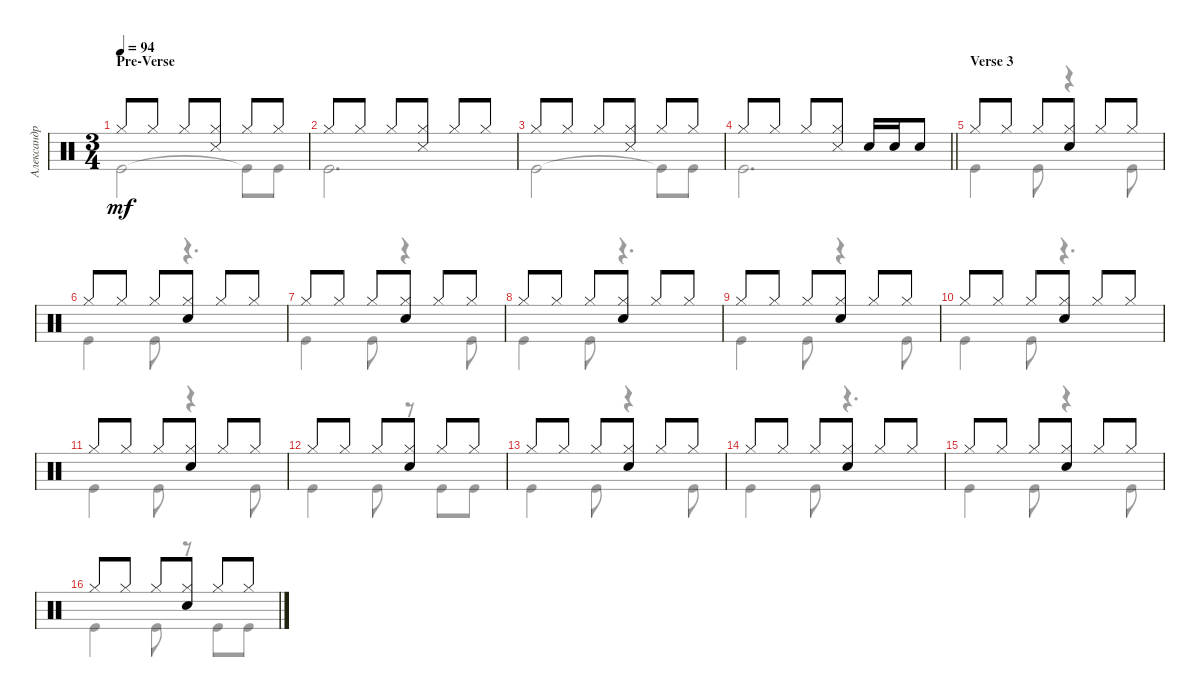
\track ("Александр Манякин" "Александр ") {instrument percussion}
\staff {score}
\articulation defaults
\voice
\ts (3 4)
\section ("" "Pre-Verse")
\tempo 94
\clef neutral
\ks c "Hi-Hat (closed)".8{dy mf} "Hi-Hat (closed)".8 "Hi-Hat (closed)".8
("Hi-Hat (closed)" "Snare (side stick) 3").8 "Hi-Hat (closed)".8 "Hi-Hat (closed)".8 |
"Hi-Hat (closed)".8 "Hi-Hat (closed)".8 "Hi-Hat (closed)".8 ("Hi-Hat (closed)" "Snare (side stick) 3").8 "Hi-Hat (closed)".8 "Hi-Hat (closed)".8 |
"Hi-Hat (closed)".8 "Hi-Hat (closed)".8 "Hi-Hat (closed)".8 ("Hi-Hat (closed)" "Snare (side stick) 3").8 "Hi-Hat (closed)".8 "Hi-Hat (closed)".8 |
\barLineRight lightlight "Hi-Hat (closed)".8 "Hi-Hat (closed)".8 "Hi-Hat (closed)".8
("Hi-Hat (closed)" "Snare (side stick) 3").8 "Snare (hit) 2".16 "Snare (hit) 2".16 "Snare (hit) 2".8 |
\section ("" "Verse 3")
"Hi-Hat (closed)".8 "Hi-Hat (closed)".8 "Hi-Hat (closed)".8 ("Hi-Hat (closed)" "Snare (hit) 2").8 "Hi-Hat (closed)".8 "Hi-Hat (closed)".8 |
"Hi-Hat (closed)".8 "Hi-Hat (closed)".8 "Hi-Hat (closed)".8 ("Hi-Hat (closed)" "Snare (hit) 2").8 "Hi-Hat (closed)".8 "Hi-Hat (closed)".8 |
"Hi-Hat (closed)".8 "Hi-Hat (closed)".8 "Hi-Hat (closed)".8 ("Hi-Hat (closed)" "Snare (hit) 2").8 "Hi-Hat (closed)".8 "Hi-Hat (closed)".8 |
"Hi-Hat (closed)".8 "Hi-Hat (closed)".8 "Hi-Hat (closed)".8 ("Hi-Hat (closed)" "Snare (hit) 2").8 "Hi-Hat (closed)".8 "Hi-Hat (closed)".8 |
"Hi-Hat (closed)".8 "Hi-Hat (closed)".8 "Hi-Hat (closed)".8 ("Hi-Hat (closed)" "Snare (hit) 2").8 "Hi-Hat (closed)".8 "Hi-Hat (closed)".8 |
"Hi-Hat (closed)".8 "Hi-Hat (closed)".8 "Hi-Hat (closed)".8 ("Hi-Hat (closed)" "Snare (hit) 2").8 "Hi-Hat (closed)".8 "Hi-Hat (closed)".8 |
"Hi-Hat (closed)".8 "Hi-Hat (closed)".8 "Hi-Hat (closed)".8 ("Hi-Hat (closed)" "Snare (hit) 2").8 "Hi-Hat (closed)".8 "Hi-Hat (closed)".8 |
"Hi-Hat (closed)".8 "Hi-Hat (closed)".8 "Hi-Hat (closed)".8 ("Hi-Hat (closed)" "Snare (hit) 2").8 "Hi-Hat (closed)".8 "Hi-Hat (closed)".8 |
"Hi-Hat (closed)".8 "Hi-Hat (closed)".8 "Hi-Hat (closed)".8 ("Hi-Hat (closed)" "Snare (hit) 2").8 "Hi-Hat (closed)".8 "Hi-Hat (closed)".8 |
"Hi-Hat (closed)".8 "Hi-Hat (closed)".8 "Hi-Hat (closed)".8 ("Hi-Hat (closed)" "Snare (hit) 2").8 "Hi-Hat (closed)".8 "Hi-Hat (closed)".8 |
"Hi-Hat (closed)".8 "Hi-Hat (closed)".8 "Hi-Hat (closed)".8 ("Hi-Hat (closed)" "Snare (hit) 2").8 "Hi-Hat (closed)".8 "Hi-Hat (closed)".8 |
"Hi-Hat (closed)".8 "Hi-Hat (closed)".8 "Hi-Hat (closed)".8 ("Hi-Hat (closed)" "Snare (hit) 2").8 "Hi-Hat (closed)".8 "Hi-Hat (closed)".8
\voice
\clef neutral
\ottava regular
\simile none
\ks c "Kick (hit)".2{dy mf} "Kick (hit)"{t}.8 "Kick (hit)".8
|
"Kick (hit)".2{d} |
"Kick (hit)".2 "Kick (hit)"{t}.8 "Kick (hit)".8 |
\barLineRight lightlight "Kick (hit)".2{d}
|
"Kick (hit)".4 "Kick (hit)".8 r.4 "Kick (hit)".8 |
"Kick (hit)".4 "Kick (hit)".8 r.4{d} |
"Kick (hit)".4 "Kick (hit)".8 r.4 "Kick (hit)".8 |
"Kick (hit)".4 "Kick (hit)".8 r.4{d} |
"Kick (hit)".4 "Kick (hit)".8 r.4 "Kick (hit)".8 |
"Kick (hit)".4 "Kick (hit)".8 r.4{d} |
"Kick (hit)".4 "Kick (hit)".8 r.4 "Kick (hit)".8 |
"Kick (hit)".4 "Kick (hit)".8 r.8 "Kick (hit)".8 "Kick (hit)".8 |
"Kick (hit)".4 "Kick (hit)".8 r.4 "Kick (hit)".8 |
"Kick (hit)".4 "Kick (hit)".8 r.4{d} |
"Kick (hit)".4 "Kick (hit)".8 r.4 "Kick (hit)".8 |
"Kick (hit)".4 "Kick (hit)".8 r.8 "Kick (hit)".8 "Kick (hit)".8
